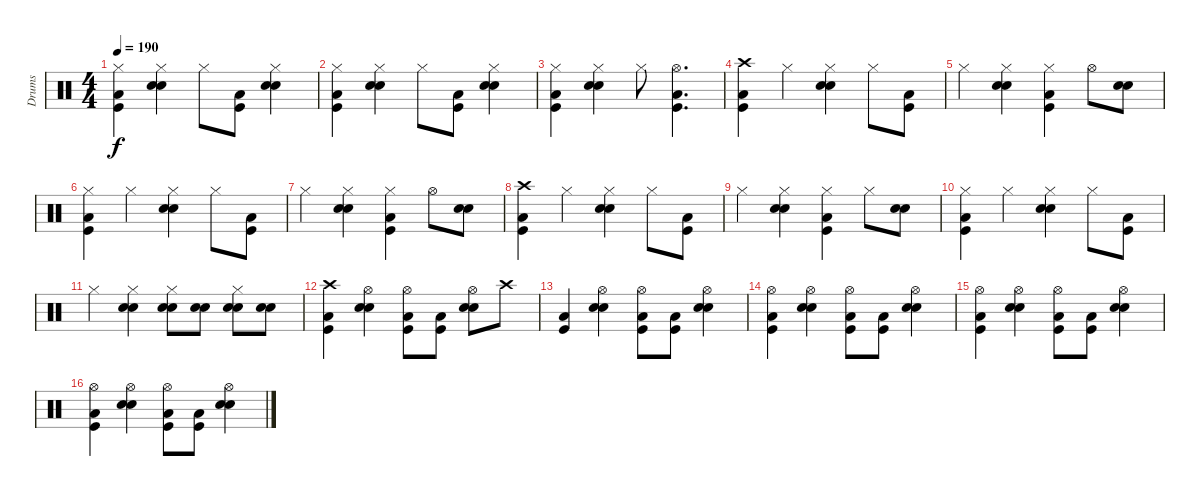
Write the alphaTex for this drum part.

\track ("Drums" "Drums") {instrument percussion}
\staff {score}
\articulation defaults
\ts (4 4)
\tempo 190
\clef neutral
\ks c
("Hi-Hat (closed)" "Kick (hit)" "Low Tom (hit)").4{dy f} ("Hi-Hat (closed)" "Snare (hit) 2" "Electric Snare (hit)").4 "Hi-Hat (closed)".8 ("Kick (hit)" "Low Tom (hit)").8 ("Hi-Hat (closed)" "Snare (hit) 2" "Electric Snare (hit)").4 |
("Hi-Hat (closed)" "Kick (hit)" "Low Tom (hit)").4 ("Hi-Hat (closed)" "Snare (hit) 2" "Electric Snare (hit)").4 "Hi-Hat (closed)".8 ("Kick (hit)" "Low Tom (hit)").8 ("Hi-Hat (closed)" "Snare (hit) 2" "Electric Snare (hit)").4 |
("Hi-Hat (closed)" "Kick (hit)" "Low Tom (hit)").4 ("Hi-Hat (closed)" "Snare (hit) 2" "Electric Snare (hit)").4 "Hi-Hat (closed)".8 ("Hi-Hat (open)" "Kick (hit)" "Low Tom (hit)").4{d} |
("Crash high (hit)" "Kick (hit)" "Low Tom (hit)").4 "Hi-Hat (closed)".4 ("Hi-Hat (closed)" "Snare (hit) 2" "Electric Snare (hit)").4 "Hi-Hat (closed)".8 ("Kick (hit)" "Low Tom (hit)").8 |
"Hi-Hat (closed)".4 ("Hi-Hat (closed)" "Snare (hit) 2" "Electric Snare (hit)").4 ("Hi-Hat (closed)" "Kick (hit)" "Low Tom (hit)").4 "Hi-Hat (open)".8 ("Snare (hit) 2" "Electric Snare (hit)").8 |
("Hi-Hat (closed)" "Kick (hit)" "Low Tom (hit)").4 "Hi-Hat (closed)".4 ("Hi-Hat (closed)" "Snare (hit) 2" "Electric Snare (hit)").4 "Hi-Hat (closed)".8 ("Kick (hit)" "Low Tom (hit)").8 |
"Hi-Hat (closed)".4 ("Hi-Hat (closed)" "Snare (hit) 2" "Electric Snare (hit)").4 ("Hi-Hat (closed)" "Kick (hit)" "Low Tom (hit)").4 "Hi-Hat (open)".8 ("Snare (hit) 2" "Electric Snare (hit)").8 |
("Crash high (hit)" "Kick (hit)" "Low Tom (hit)").4 "Hi-Hat (closed)".4 ("Hi-Hat (closed)" "Snare (hit) 2" "Electric Snare (hit)").4 "Hi-Hat (closed)".8 ("Kick (hit)" "Low Tom (hit)").8 |
"Hi-Hat (closed)".4 ("Hi-Hat (closed)" "Snare (hit) 2" "Electric Snare (hit)").4 ("Hi-Hat (closed)" "Kick (hit)" "Low Tom (hit)").4 "Hi-Hat (closed)".8 ("Snare (hit) 2" "Electric Snare (hit)").8 |
("Hi-Hat (closed)" "Kick (hit)" "Low Tom (hit)").4 "Hi-Hat (closed)".4 ("Hi-Hat (closed)" "Snare (hit) 2" "Electric Snare (hit)").4 "Hi-Hat (closed)".8 ("Kick (hit)" "Low Tom (hit)").8 |
"Hi-Hat (closed)".4 ("Hi-Hat (closed)" "Snare (hit) 2" "Electric Snare (hit)").4 ("Hi-Hat (closed)" "Snare (hit) 2" "Electric Snare (hit)").8 ("Snare (hit) 2" "Electric Snare (hit)").8 ("Hi-Hat (closed)" "Snare (hit) 2" "Electric Snare (hit)").8 ("Snare (hit) 2" "Electric Snare (hit)").8 |
("Crash high (hit)" "Kick (hit)" "Low Tom (hit)").4 ("Hi-Hat (open)" "Snare (hit) 2" "Electric Snare (hit)").4 ("Hi-Hat (open)" "Kick (hit)" "Low Tom (hit)").8 ("Kick (hit)" "Low Tom (hit)").8 ("Hi-Hat (open)" "Snare (hit) 2" "Electric Snare (hit)").8 "Crash high (hit)".8 |
("Kick (hit)" "Low Tom (hit)").4 ("Hi-Hat (open)" "Snare (hit) 2" "Electric Snare (hit)").4 ("Hi-Hat (open)" "Kick (hit)" "Low Tom (hit)").8 ("Kick (hit)" "Low Tom (hit)").8 ("Hi-Hat (open)" "Snare (hit) 2" "Electric Snare (hit)").4 |
("Hi-Hat (open)" "Kick (hit)" "Low Tom (hit)").4 ("Hi-Hat (open)" "Snare (hit) 2" "Electric Snare (hit)").4 ("Hi-Hat (open)" "Kick (hit)" "Low Tom (hit)").8 ("Kick (hit)" "Low Tom (hit)").8 ("Hi-Hat (open)" "Snare (hit) 2" "Electric Snare (hit)").4 |
("Hi-Hat (open)" "Kick (hit)" "Low Tom (hit)").4 ("Hi-Hat (open)" "Snare (hit) 2" "Electric Snare (hit)").4 ("Hi-Hat (open)" "Kick (hit)" "Low Tom (hit)").8 ("Kick (hit)" "Low Tom (hit)").8 ("Hi-Hat (open)" "Snare (hit) 2" "Electric Snare (hit)").4 |
("Hi-Hat (open)" "Kick (hit)" "Low Tom (hit)").4 ("Hi-Hat (open)" "Snare (hit) 2" "Electric Snare (hit)").4 ("Hi-Hat (open)" "Kick (hit)" "Low Tom (hit)").8 ("Kick (hit)" "Low Tom (hit)").8 ("Hi-Hat (open)" "Snare (hit) 2" "Electric Snare (hit)").4
